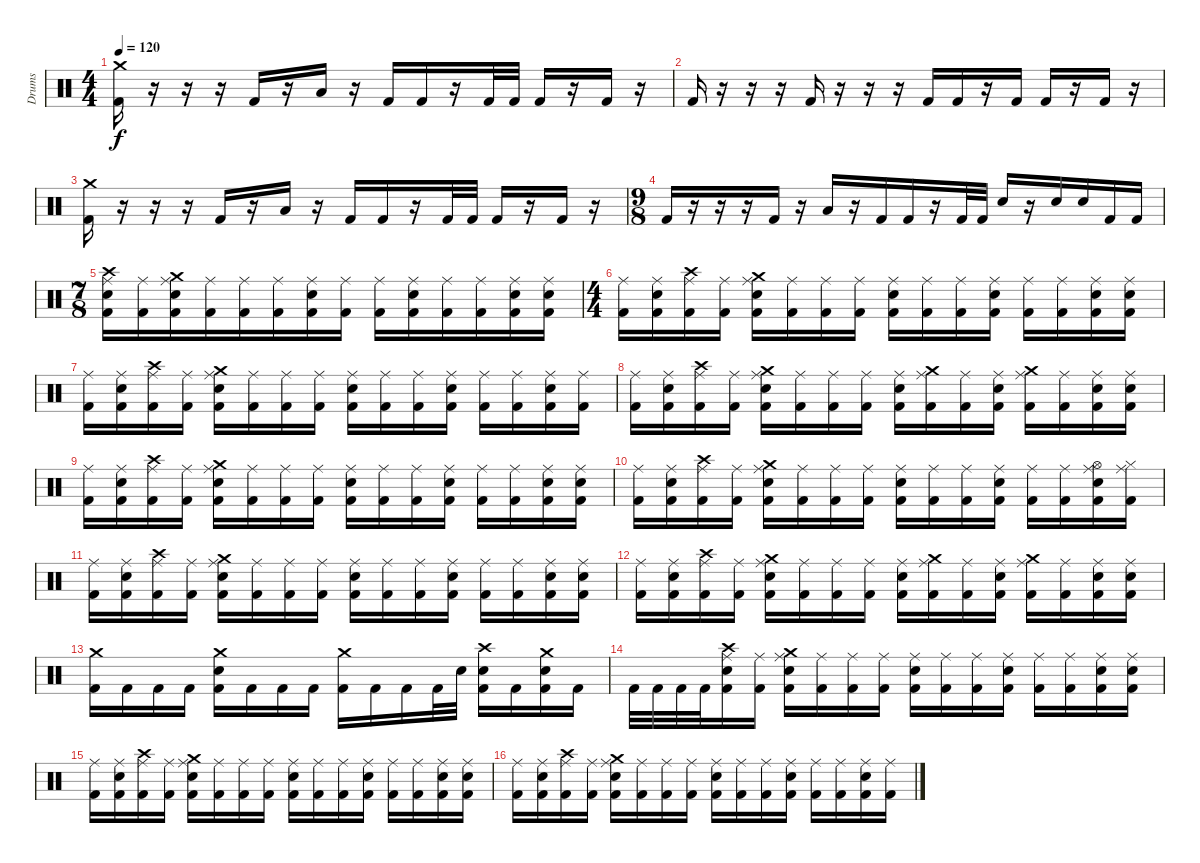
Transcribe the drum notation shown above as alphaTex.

\track ("Drums" "Drums") {instrument percussion}
\staff {score}
\articulation defaults
\ts (4 4)
\tempo 120
\clef neutral
\ks c
("Crash medium (hit)" "Kick (hit) 2").16{dy f} r.16 r.16 r.16 "Kick (hit) 2".16 r.16 "Low Tom (hit)".16 r.16 "Kick (hit) 2".16 "Kick (hit) 2".16 r.16 "Kick (hit) 2".32 "Kick (hit) 2".32 "Kick (hit) 2".16 r.16 "Kick (hit) 2".16 r.16 |
"Kick (hit) 2".16 r.16 r.16 r.16 "Kick (hit) 2".16 r.16 r.16 r.16 "Kick (hit) 2".16 "Kick (hit) 2".16 r.16 "Kick (hit) 2".16 "Kick (hit) 2".16 r.16 "Kick (hit) 2".16 r.16 |
("Crash medium (hit)" "Kick (hit) 2").16 r.16 r.16 r.16 "Kick (hit) 2".16 r.16 "Low Tom (hit)".16 r.16 "Kick (hit) 2".16 "Kick (hit) 2".16 r.16 "Kick (hit) 2".32 "Kick (hit) 2".32 "Kick (hit) 2".16 r.16 "Kick (hit) 2".16 r.16 |
\ts (9 8)
"Kick (hit) 2".16 r.16 r.16 r.16 "Kick (hit) 2".16 r.16 "Low Tom (hit)".16 r.16 "Kick (hit) 2".16 "Kick (hit) 2".16 r.16 "Kick (hit) 2".32 "Kick (hit) 2".32 "Snare (hit) 2".16 r.16 "Snare (hit) 2".16 "Snare (hit) 2".16 "Kick (hit) 2".16 "Kick (hit) 2".16 |
\ts (7 8)
("Crash high (hit)" "Ride (middle)" "Snare (hit) 2" "Kick (hit) 2").16 ("Ride (middle)" "Kick (hit) 2").16 ("Crash medium (hit)" "Ride (middle)" "Snare (hit) 2" "Kick (hit) 2").16 ("Ride (middle)" "Kick (hit) 2").16 ("Ride (middle)" "Kick (hit) 2").16 ("Ride (middle)" "Kick (hit) 2").16 ("Ride (middle)" "Snare (hit) 2" "Kick (hit) 2").16 ("Ride (middle)" "Kick (hit) 2").16 ("Ride (middle)" "Kick (hit) 2").16 ("Ride (middle)" "Snare (hit) 2" "Kick (hit) 2").16 ("Ride (middle)" "Kick (hit) 2").16 ("Ride (middle)" "Kick (hit) 2").16 ("Ride (middle)" "Snare (hit) 2" "Kick (hit) 2").16 ("Ride (middle)" "Snare (hit) 2" "Kick (hit) 2").16 |
\ts (4 4)
("Ride (middle)" "Kick (hit) 2").16 ("Ride (middle)" "Snare (hit) 2" "Kick (hit) 2").16 ("Crash high (hit)" "Ride (middle)" "Kick (hit) 2").16 ("Ride (middle)" "Kick (hit) 2").16 ("Crash medium (hit)" "Ride (middle)" "Snare (hit) 2" "Kick (hit) 2").16 ("Ride (middle)" "Kick (hit) 2").16 ("Ride (middle)" "Kick (hit) 2").16 ("Ride (middle)" "Kick (hit) 2").16 ("Ride (middle)" "Snare (hit) 2" "Kick (hit) 2").16 ("Ride (middle)" "Kick (hit) 2").16 ("Ride (middle)" "Kick (hit) 2").16 ("Ride (middle)" "Snare (hit) 2" "Kick (hit) 2").16 ("Ride (middle)" "Kick (hit) 2").16 ("Ride (middle)" "Kick (hit) 2").16 ("Ride (middle)" "Snare (hit) 2" "Kick (hit) 2").16 ("Ride (middle)" "Snare (hit) 2" "Kick (hit) 2").16 |
("Ride (middle)" "Kick (hit) 2").16 ("Ride (middle)" "Snare (hit) 2" "Kick (hit) 2").16 ("Crash high (hit)" "Ride (middle)" "Kick (hit) 2").16 ("Ride (middle)" "Kick (hit) 2").16 ("Crash medium (hit)" "Ride (middle)" "Snare (hit) 2" "Kick (hit) 2").16 ("Ride (middle)" "Kick (hit) 2").16 ("Ride (middle)" "Kick (hit) 2").16 ("Ride (middle)" "Kick (hit) 2").16 ("Ride (middle)" "Snare (hit) 2" "Kick (hit) 2").16 ("Ride (middle)" "Kick (hit) 2").16 ("Ride (middle)" "Kick (hit) 2").16 ("Ride (middle)" "Snare (hit) 2" "Kick (hit) 2").16 ("Ride (middle)" "Kick (hit) 2").16 ("Ride (middle)" "Kick (hit) 2").16 ("Ride (middle)" "Snare (hit) 2" "Kick (hit) 2").16 ("Ride (middle)" "Kick (hit) 2").16 |
("Ride (middle)" "Kick (hit) 2").16 ("Ride (middle)" "Snare (hit) 2" "Kick (hit) 2").16 ("Crash high (hit)" "Ride (middle)" "Kick (hit) 2").16 ("Ride (middle)" "Kick (hit) 2").16 ("Crash medium (hit)" "Ride (middle)" "Snare (hit) 2" "Kick (hit) 2").16 ("Ride (middle)" "Kick (hit) 2").16 ("Ride (middle)" "Kick (hit) 2").16 ("Ride (middle)" "Kick (hit) 2").16 ("Ride (middle)" "Snare (hit) 2" "Kick (hit) 2").16 ("Crash medium (hit)" "Ride (middle)" "Kick (hit) 2").16 ("Ride (middle)" "Kick (hit) 2").16 ("Ride (middle)" "Snare (hit) 2" "Kick (hit) 2").16 ("Crash medium (hit)" "Ride (middle)" "Kick (hit) 2").16 ("Ride (middle)" "Kick (hit) 2").16 ("Ride (middle)" "Snare (hit) 2" "Kick (hit) 2").16 ("Ride (middle)" "Snare (hit) 2" "Kick (hit) 2").16 |
("Ride (middle)" "Kick (hit) 2").16 ("Ride (middle)" "Snare (hit) 2" "Kick (hit) 2").16 ("Crash high (hit)" "Ride (middle)" "Kick (hit) 2").16 ("Ride (middle)" "Kick (hit) 2").16 ("Crash medium (hit)" "Ride (middle)" "Snare (hit) 2" "Kick (hit) 2").16 ("Ride (middle)" "Kick (hit) 2").16 ("Ride (middle)" "Kick (hit) 2").16 ("Ride (middle)" "Kick (hit) 2").16 ("Ride (middle)" "Snare (hit) 2" "Kick (hit) 2").16 ("Ride (middle)" "Kick (hit) 2").16 ("Ride (middle)" "Kick (hit) 2").16 ("Ride (middle)" "Snare (hit) 2" "Kick (hit) 2").16 ("Ride (middle)" "Kick (hit) 2").16 ("Ride (middle)" "Kick (hit) 2").16 ("Ride (middle)" "Snare (hit) 2" "Kick (hit) 2").16 ("Ride (middle)" "Snare (hit) 2" "Kick (hit) 2").16 |
("Ride (middle)" "Kick (hit) 2").16 ("Ride (middle)" "Snare (hit) 2" "Kick (hit) 2").16 ("Crash high (hit)" "Ride (middle)" "Kick (hit) 2").16 ("Ride (middle)" "Kick (hit) 2").16 ("Crash medium (hit)" "Ride (middle)" "Snare (hit) 2" "Kick (hit) 2").16 ("Ride (middle)" "Kick (hit) 2").16 ("Ride (middle)" "Kick (hit) 2").16 ("Ride (middle)" "Kick (hit) 2").16 ("Ride (middle)" "Snare (hit) 2" "Kick (hit) 2").16 ("Ride (middle)" "Kick (hit) 2").16 ("Ride (middle)" "Kick (hit) 2").16 ("Ride (middle)" "Snare (hit) 2" "Kick (hit) 2").16 ("Ride (middle)" "Kick (hit) 2").16 ("Ride (middle)" "Kick (hit) 2").16 ("Hi-Hat (open)" "Ride (middle)" "Snare (hit) 2" "Kick (hit) 2").16 ("Hi-Hat (closed)" "Ride (middle)" "Kick (hit) 2").16 |
("Ride (middle)" "Kick (hit) 2").16 ("Ride (middle)" "Snare (hit) 2" "Kick (hit) 2").16 ("Crash high (hit)" "Ride (middle)" "Kick (hit) 2").16 ("Ride (middle)" "Kick (hit) 2").16 ("Crash medium (hit)" "Ride (middle)" "Snare (hit) 2" "Kick (hit) 2").16 ("Ride (middle)" "Kick (hit) 2").16 ("Ride (middle)" "Kick (hit) 2").16 ("Ride (middle)" "Kick (hit) 2").16 ("Ride (middle)" "Snare (hit) 2" "Kick (hit) 2").16 ("Ride (middle)" "Kick (hit) 2").16 ("Ride (middle)" "Kick (hit) 2").16 ("Ride (middle)" "Snare (hit) 2" "Kick (hit) 2").16 ("Ride (middle)" "Kick (hit) 2").16 ("Ride (middle)" "Kick (hit) 2").16 ("Ride (middle)" "Snare (hit) 2" "Kick (hit) 2").16 ("Ride (middle)" "Snare (hit) 2" "Kick (hit) 2").16 |
("Ride (middle)" "Kick (hit) 2").16 ("Ride (middle)" "Snare (hit) 2" "Kick (hit) 2").16 ("Crash high (hit)" "Ride (middle)" "Kick (hit) 2").16 ("Ride (middle)" "Kick (hit) 2").16 ("Crash medium (hit)" "Ride (middle)" "Snare (hit) 2" "Kick (hit) 2").16 ("Ride (middle)" "Kick (hit) 2").16 ("Ride (middle)" "Kick (hit) 2").16 ("Ride (middle)" "Kick (hit) 2").16 ("Ride (middle)" "Snare (hit) 2" "Kick (hit) 2").16 ("Crash medium (hit)" "Ride (middle)" "Kick (hit) 2").16 ("Ride (middle)" "Kick (hit) 2").16 ("Ride (middle)" "Snare (hit) 2" "Kick (hit) 2").16 ("Crash medium (hit)" "Ride (middle)" "Kick (hit) 2").16 ("Ride (middle)" "Kick (hit) 2").16 ("Ride (middle)" "Snare (hit) 2" "Kick (hit) 2").16 ("Ride (middle)" "Snare (hit) 2" "Kick (hit) 2").16 |
("Crash medium (hit)" "Kick (hit) 2").16 "Kick (hit) 2".16 "Kick (hit) 2".16 "Kick (hit) 2".16 ("Crash medium (hit)" "Snare (hit) 2" "Kick (hit) 2").16 "Kick (hit) 2".16 "Kick (hit) 2".16 "Kick (hit) 2".16 ("Crash medium (hit)" "Kick (hit) 2").16 "Kick (hit) 2".16 "Kick (hit) 2".16 "Kick (hit) 2".32 "Snare (hit) 2".32 ("Crash high (hit)" "Snare (hit) 2" "Kick (hit) 2").16 "Kick (hit) 2".16 ("Crash medium (hit)" "Snare (hit) 2" "Kick (hit) 2").16 "Kick (hit) 2".16 |
"Kick (hit) 2".32 "Kick (hit) 2".32 "Kick (hit) 2".32 "Kick (hit) 2".32 ("Crash high (hit)" "Ride (middle)" "Snare (hit) 2" "Kick (hit) 2").16 ("Ride (middle)" "Kick (hit) 2").16 ("Crash medium (hit)" "Ride (middle)" "Snare (hit) 2" "Kick (hit) 2").16 ("Ride (middle)" "Kick (hit) 2").16 ("Ride (middle)" "Kick (hit) 2").16 ("Ride (middle)" "Kick (hit) 2").16 ("Ride (middle)" "Snare (hit) 2" "Kick (hit) 2").16 ("Ride (middle)" "Kick (hit) 2").16 ("Ride (middle)" "Kick (hit) 2").16 ("Ride (middle)" "Snare (hit) 2" "Kick (hit) 2").16 ("Ride (middle)" "Kick (hit) 2").16 ("Ride (middle)" "Kick (hit) 2").16 ("Ride (middle)" "Snare (hit) 2" "Kick (hit) 2").16 ("Ride (middle)" "Snare (hit) 2" "Kick (hit) 2").16 |
("Ride (middle)" "Kick (hit) 2").16 ("Ride (middle)" "Snare (hit) 2" "Kick (hit) 2").16 ("Crash high (hit)" "Ride (middle)" "Kick (hit) 2").16 ("Ride (middle)" "Kick (hit) 2").16 ("Crash medium (hit)" "Ride (middle)" "Snare (hit) 2" "Kick (hit) 2").16 ("Ride (middle)" "Kick (hit) 2").16 ("Ride (middle)" "Kick (hit) 2").16 ("Ride (middle)" "Kick (hit) 2").16 ("Ride (middle)" "Snare (hit) 2" "Kick (hit) 2").16 ("Ride (middle)" "Kick (hit) 2").16 ("Ride (middle)" "Kick (hit) 2").16 ("Ride (middle)" "Snare (hit) 2" "Kick (hit) 2").16 ("Ride (middle)" "Kick (hit) 2").16 ("Ride (middle)" "Kick (hit) 2").16 ("Ride (middle)" "Snare (hit) 2" "Kick (hit) 2").16 ("Ride (middle)" "Snare (hit) 2" "Kick (hit) 2").16 |
("Ride (middle)" "Kick (hit) 2").16 ("Ride (middle)" "Snare (hit) 2" "Kick (hit) 2").16 ("Crash high (hit)" "Ride (middle)" "Kick (hit) 2").16 ("Ride (middle)" "Kick (hit) 2").16 ("Crash medium (hit)" "Ride (middle)" "Snare (hit) 2" "Kick (hit) 2").16 ("Ride (middle)" "Kick (hit) 2").16 ("Ride (middle)" "Kick (hit) 2").16 ("Ride (middle)" "Kick (hit) 2").16 ("Ride (middle)" "Snare (hit) 2" "Kick (hit) 2").16 ("Ride (middle)" "Kick (hit) 2").16 ("Ride (middle)" "Kick (hit) 2").16 ("Ride (middle)" "Snare (hit) 2" "Kick (hit) 2").16 ("Ride (middle)" "Kick (hit) 2").16 ("Ride (middle)" "Kick (hit) 2").16 ("Ride (middle)" "Snare (hit) 2" "Kick (hit) 2").16 ("Ride (middle)" "Kick (hit) 2").16
